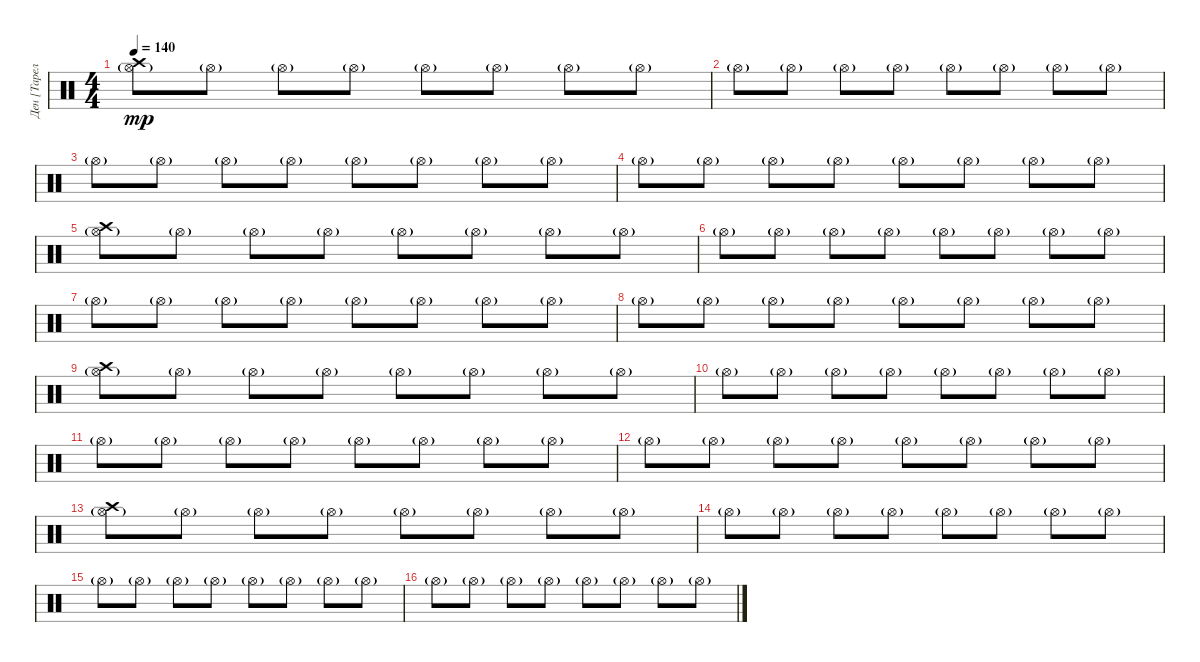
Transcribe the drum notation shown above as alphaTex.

\track ("Ден [Тарелки]" "Ден [Тарел") {instrument percussion}
\staff {score}
\articulation defaults
\ts (4 4)
\tempo 140
\clef neutral
\ks c
("Hi-Hat (open)"{g} "Crash high (hit)").8{dy mp} "Hi-Hat (open)"{g}.8 "Hi-Hat (open)"{g}.8 "Hi-Hat (open)"{g}.8 "Hi-Hat (open)"{g}.8 "Hi-Hat (open)"{g}.8 "Hi-Hat (open)"{g}.8 "Hi-Hat (open)"{g}.8 |
"Hi-Hat (open)"{g}.8 "Hi-Hat (open)"{g}.8 "Hi-Hat (open)"{g}.8 "Hi-Hat (open)"{g}.8 "Hi-Hat (open)"{g}.8 "Hi-Hat (open)"{g}.8 "Hi-Hat (open)"{g}.8 "Hi-Hat (open)"{g}.8 |
"Hi-Hat (open)"{g}.8 "Hi-Hat (open)"{g}.8 "Hi-Hat (open)"{g}.8 "Hi-Hat (open)"{g}.8 "Hi-Hat (open)"{g}.8 "Hi-Hat (open)"{g}.8 "Hi-Hat (open)"{g}.8 "Hi-Hat (open)"{g}.8 |
"Hi-Hat (open)"{g}.8 "Hi-Hat (open)"{g}.8 "Hi-Hat (open)"{g}.8 "Hi-Hat (open)"{g}.8 "Hi-Hat (open)"{g}.8 "Hi-Hat (open)"{g}.8 "Hi-Hat (open)"{g}.8 "Hi-Hat (open)"{g}.8 |
("Hi-Hat (open)"{g} "Crash high (hit)").8 "Hi-Hat (open)"{g}.8 "Hi-Hat (open)"{g}.8 "Hi-Hat (open)"{g}.8 "Hi-Hat (open)"{g}.8 "Hi-Hat (open)"{g}.8 "Hi-Hat (open)"{g}.8 "Hi-Hat (open)"{g}.8 |
"Hi-Hat (open)"{g}.8 "Hi-Hat (open)"{g}.8 "Hi-Hat (open)"{g}.8 "Hi-Hat (open)"{g}.8 "Hi-Hat (open)"{g}.8 "Hi-Hat (open)"{g}.8 "Hi-Hat (open)"{g}.8 "Hi-Hat (open)"{g}.8 |
"Hi-Hat (open)"{g}.8 "Hi-Hat (open)"{g}.8 "Hi-Hat (open)"{g}.8 "Hi-Hat (open)"{g}.8 "Hi-Hat (open)"{g}.8 "Hi-Hat (open)"{g}.8 "Hi-Hat (open)"{g}.8 "Hi-Hat (open)"{g}.8 |
"Hi-Hat (open)"{g}.8 "Hi-Hat (open)"{g}.8 "Hi-Hat (open)"{g}.8 "Hi-Hat (open)"{g}.8 "Hi-Hat (open)"{g}.8 "Hi-Hat (open)"{g}.8 "Hi-Hat (open)"{g}.8 "Hi-Hat (open)"{g}.8 |
("Hi-Hat (open)"{g} "Crash high (hit)").8 "Hi-Hat (open)"{g}.8 "Hi-Hat (open)"{g}.8 "Hi-Hat (open)"{g}.8 "Hi-Hat (open)"{g}.8 "Hi-Hat (open)"{g}.8 "Hi-Hat (open)"{g}.8 "Hi-Hat (open)"{g}.8 |
"Hi-Hat (open)"{g}.8 "Hi-Hat (open)"{g}.8 "Hi-Hat (open)"{g}.8 "Hi-Hat (open)"{g}.8 "Hi-Hat (open)"{g}.8 "Hi-Hat (open)"{g}.8 "Hi-Hat (open)"{g}.8 "Hi-Hat (open)"{g}.8 |
"Hi-Hat (open)"{g}.8 "Hi-Hat (open)"{g}.8 "Hi-Hat (open)"{g}.8 "Hi-Hat (open)"{g}.8 "Hi-Hat (open)"{g}.8 "Hi-Hat (open)"{g}.8 "Hi-Hat (open)"{g}.8 "Hi-Hat (open)"{g}.8 |
"Hi-Hat (open)"{g}.8 "Hi-Hat (open)"{g}.8 "Hi-Hat (open)"{g}.8 "Hi-Hat (open)"{g}.8 "Hi-Hat (open)"{g}.8 "Hi-Hat (open)"{g}.8 "Hi-Hat (open)"{g}.8 "Hi-Hat (open)"{g}.8 |
("Hi-Hat (open)"{g} "Crash high (hit)").8 "Hi-Hat (open)"{g}.8 "Hi-Hat (open)"{g}.8 "Hi-Hat (open)"{g}.8 "Hi-Hat (open)"{g}.8 "Hi-Hat (open)"{g}.8 "Hi-Hat (open)"{g}.8 "Hi-Hat (open)"{g}.8 |
"Hi-Hat (open)"{g}.8 "Hi-Hat (open)"{g}.8 "Hi-Hat (open)"{g}.8 "Hi-Hat (open)"{g}.8 "Hi-Hat (open)"{g}.8 "Hi-Hat (open)"{g}.8 "Hi-Hat (open)"{g}.8 "Hi-Hat (open)"{g}.8 |
"Hi-Hat (open)"{g}.8 "Hi-Hat (open)"{g}.8 "Hi-Hat (open)"{g}.8 "Hi-Hat (open)"{g}.8 "Hi-Hat (open)"{g}.8 "Hi-Hat (open)"{g}.8 "Hi-Hat (open)"{g}.8 "Hi-Hat (open)"{g}.8 |
"Hi-Hat (open)"{g}.8 "Hi-Hat (open)"{g}.8 "Hi-Hat (open)"{g}.8 "Hi-Hat (open)"{g}.8 "Hi-Hat (open)"{g}.8 "Hi-Hat (open)"{g}.8 "Hi-Hat (open)"{g}.8 "Hi-Hat (open)"{g}.8
